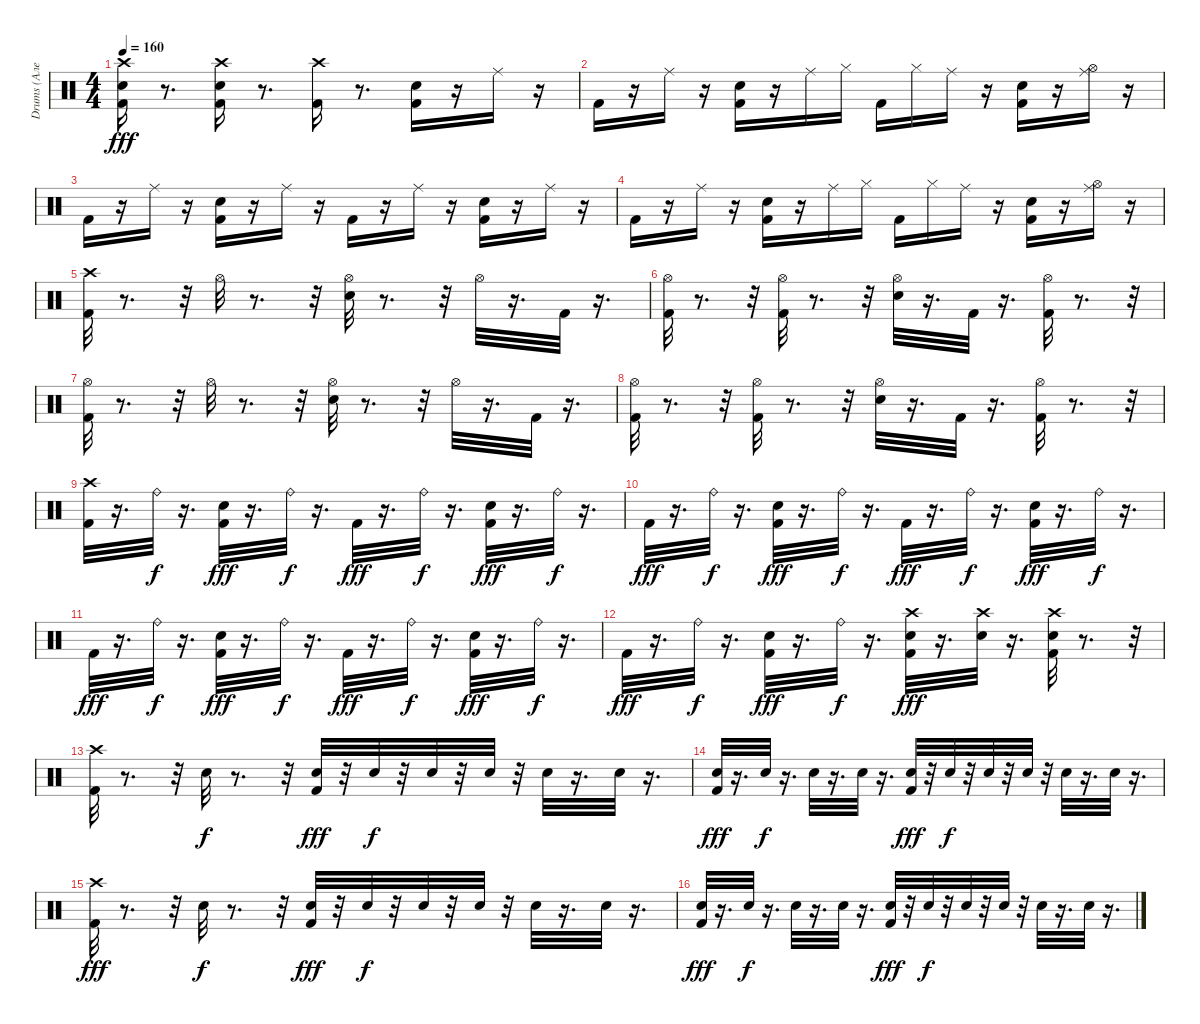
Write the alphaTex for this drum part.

\track ("Drums (Алексей Барзилович)" "Drums (Але") {instrument percussion}
\staff {score}
\articulation defaults
\ts (4 4)
\tempo 160
\clef neutral
\ks c
("Electric Snare (hit)" "Kick (hit) 2" "Crash high (hit)").16{dy fff} r.8{d} ("Crash high (hit)" "Electric Snare (hit)" "Kick (hit) 2").16 r.8{d} ("Crash high (hit)" "Kick (hit) 2").16 r.8{d} ("Kick (hit) 2" "Electric Snare (hit)").16 r.16 "Ride (middle)".16 r.16 |
"Kick (hit) 2".16 r.16 "Ride (middle)".16 r.16 ("Electric Snare (hit)" "Kick (hit) 2").16 r.16 "Ride (middle)".16 "Hi-Hat (closed)".16 "Kick (hit) 2".16 "Hi-Hat (closed)".16 "Ride (middle)".16 r.16 ("Electric Snare (hit)" "Kick (hit) 2").16 r.16 ("Hi-Hat (open)" "Ride (middle)").16 r.16 |
"Kick (hit) 2".16 r.16 "Ride (middle)".16 r.16 ("Kick (hit) 2" "Electric Snare (hit)").16 r.16 "Ride (middle)".16 r.16 "Kick (hit) 2".16 r.16 "Ride (middle)".16 r.16 ("Electric Snare (hit)" "Kick (hit) 2").16 r.16 "Ride (middle)".16 r.16 |
"Kick (hit) 2".16 r.16 "Ride (middle)".16 r.16 ("Kick (hit) 2" "Electric Snare (hit)").16 r.16 "Ride (middle)".16 "Hi-Hat (closed)".16 "Kick (hit) 2".16 "Hi-Hat (closed)".16 "Ride (middle)".16 r.16 ("Kick (hit) 2" "Electric Snare (hit)").16 r.16 ("Hi-Hat (open)" "Ride (middle)").16 r.16 |
("Crash high (hit)" "Kick (hit) 2").32 r.8{d} r.32 "Hi-Hat (open)".32 r.8{d} r.32 ("Hi-Hat (open)" "Electric Snare (hit)").32 r.8{d} r.32 "Hi-Hat (open)".32 r.16{d} "Kick (hit) 2".32 r.16{d} |
("Hi-Hat (open)" "Kick (hit) 2").32 r.8{d} r.32 ("Hi-Hat (open)" "Kick (hit) 2").32 r.8{d} r.32 ("Hi-Hat (open)" "Electric Snare (hit)").32 r.16{d} "Kick (hit) 2".32 r.16{d} ("Hi-Hat (open)" "Kick (hit) 2").32 r.8{d} r.32 |
("Kick (hit) 2" "Hi-Hat (open)").32 r.8{d} r.32 "Hi-Hat (open)".32 r.8{d} r.32 ("Electric Snare (hit)" "Hi-Hat (open)").32 r.8{d} r.32 "Hi-Hat (open)".32 r.16{d} "Kick (hit) 2".32 r.16{d} |
("Hi-Hat (open)" "Kick (hit) 2").32 r.8{d} r.32 ("Kick (hit) 2" "Hi-Hat (open)").32 r.8{d} r.32 ("Hi-Hat (open)" "Electric Snare (hit)").32 r.16{d} "Kick (hit) 2".32 r.16{d} ("Hi-Hat (open)" "Kick (hit) 2").32 r.8{d} r.32 |
("Crash high (hit)" "Kick (hit) 2").32 r.16{d} "Ride (bell)".32{dy f} r.16{d} ("Kick (hit) 2" "Electric Snare (hit)").32{dy fff} r.16{d} "Ride (bell)".32{dy f} r.16{d} "Kick (hit) 2".32{dy fff} r.16{d} "Ride (bell)".32{dy f} r.16{d} ("Electric Snare (hit)" "Kick (hit) 2").32{dy fff} r.16{d} "Ride (bell)".32{dy f} r.16{d} |
"Kick (hit) 2".32{dy fff} r.16{d} "Ride (bell)".32{dy f} r.16{d} ("Electric Snare (hit)" "Kick (hit) 2").32{dy fff} r.16{d} "Ride (bell)".32{dy f} r.16{d} "Kick (hit) 2".32{dy fff} r.16{d} "Ride (bell)".32{dy f} r.16{d} ("Electric Snare (hit)" "Kick (hit) 2").32{dy fff} r.16{d} "Ride (bell)".32{dy f} r.16{d} |
"Kick (hit) 2".32{dy fff} r.16{d} "Ride (bell)".32{dy f} r.16{d} ("Kick (hit) 2" "Electric Snare (hit)").32{dy fff} r.16{d} "Ride (bell)".32{dy f} r.16{d} "Kick (hit) 2".32{dy fff} r.16{d} "Ride (bell)".32{dy f} r.16{d} ("Electric Snare (hit)" "Kick (hit) 2").32{dy fff} r.16{d} "Ride (bell)".32{dy f} r.16{d} |
"Kick (hit) 2".32{dy fff} r.16{d} "Ride (bell)".32{dy f} r.16{d} ("Electric Snare (hit)" "Kick (hit) 2").32{dy fff} r.16{d} "Ride (bell)".32{dy f} r.16{d} ("Crash high (hit)" "Electric Snare (hit)" "Kick (hit) 2").32{dy fff} r.16{d} ("Crash high (hit)" "Electric Snare (hit)").32 r.16{d} ("Electric Snare (hit)" "Kick (hit) 2" "Crash high (hit)").32 r.8{d} r.32 |
("Kick (hit) 2" "Crash high (hit)").32 r.8{d} r.32 "Electric Snare (hit)".32{dy f} r.8{d} r.32 ("Electric Snare (hit)" "Kick (hit) 2").32{dy fff} r.32 "Electric Snare (hit)".32{dy f} r.32 "Electric Snare (hit)".32 r.32 "Electric Snare (hit)".32 r.32 "Electric Snare (hit)".32 r.16{d} "Electric Snare (hit)".32 r.16{d} |
("Electric Snare (hit)" "Kick (hit) 2").32{dy fff} r.16{d} "Electric Snare (hit)".32{dy f} r.16{d} "Electric Snare (hit)".32 r.16{d} "Electric Snare (hit)".32 r.16{d} ("Kick (hit) 2" "Electric Snare (hit)").32{dy fff} r.32 "Electric Snare (hit)".32{dy f} r.32 "Electric Snare (hit)".32 r.32 "Electric Snare (hit)".32 r.32 "Electric Snare (hit)".32 r.16{d} "Electric Snare (hit)".32 r.16{d} |
("Kick (hit) 2" "Crash high (hit)").32{dy fff} r.8{d} r.32 "Electric Snare (hit)".32{dy f} r.8{d} r.32 ("Electric Snare (hit)" "Kick (hit) 2").32{dy fff} r.32 "Electric Snare (hit)".32{dy f} r.32 "Electric Snare (hit)".32 r.32 "Electric Snare (hit)".32 r.32 "Electric Snare (hit)".32 r.16{d} "Electric Snare (hit)".32 r.16{d} |
("Electric Snare (hit)" "Kick (hit) 2").32{dy fff} r.16{d} "Electric Snare (hit)".32{dy f} r.16{d} "Electric Snare (hit)".32 r.16{d} "Electric Snare (hit)".32 r.16{d} ("Kick (hit) 2" "Electric Snare (hit)").32{dy fff} r.32 "Electric Snare (hit)".32{dy f} r.32 "Electric Snare (hit)".32 r.32 "Electric Snare (hit)".32 r.32 "Electric Snare (hit)".32 r.16{d} "Electric Snare (hit)".32 r.16{d}
